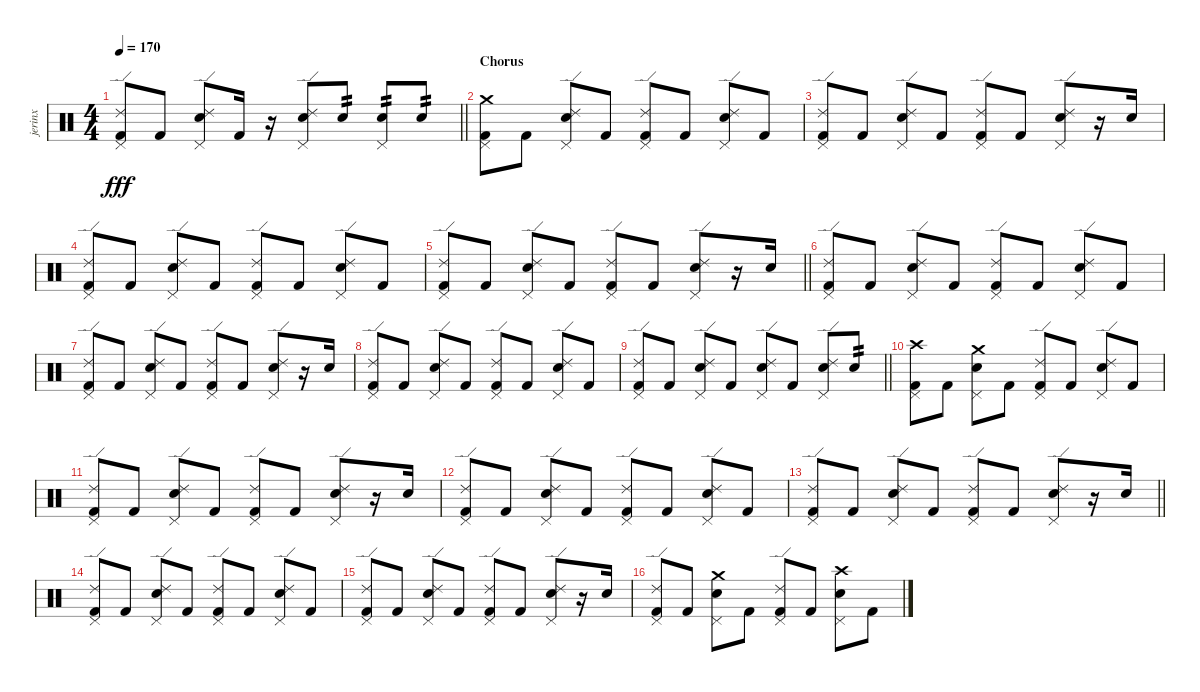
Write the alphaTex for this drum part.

\track ("jerinx" "jerinx") {instrument percussion}
\staff {score}
\articulation defaults
\ts (4 4)
\tempo 170
\clef neutral
\barLineRight lightlight
\ks c
("Pedal Hi-Hat (hit)" "Kick (hit) 2" "Ride (edge) 2").8{dy fff} "Kick (hit) 2".8 ("Pedal Hi-Hat (hit)" "Snare (hit) 2" "Ride (edge) 2").8 "Kick (hit) 2".16 r.16 ("Pedal Hi-Hat (hit)" "Snare (hit) 2" "Ride (edge) 2").8 "Snare (hit) 2".8{tp 2} ("Pedal Hi-Hat (hit)" "Snare (hit) 2").8{tp 2} "Snare (hit) 2".8{tp 2} |
\section ("" "Chorus")
("Pedal Hi-Hat (hit)" "Kick (hit) 2" "Crash medium (hit)").8 "Kick (hit) 2".8 ("Pedal Hi-Hat (hit)" "Snare (hit) 2" "Ride (edge) 2").8 "Kick (hit) 2".8 ("Pedal Hi-Hat (hit)" "Kick (hit) 2" "Ride (edge) 2").8 "Kick (hit) 2".8 ("Pedal Hi-Hat (hit)" "Snare (hit) 2" "Ride (edge) 2").8 "Kick (hit) 2".8 |
("Pedal Hi-Hat (hit)" "Kick (hit) 2" "Ride (edge) 2").8 "Kick (hit) 2".8 ("Pedal Hi-Hat (hit)" "Snare (hit) 2" "Ride (edge) 2").8 "Kick (hit) 2".8 ("Pedal Hi-Hat (hit)" "Kick (hit) 2" "Ride (edge) 2").8 "Kick (hit) 2".8 ("Pedal Hi-Hat (hit)" "Snare (hit) 2" "Ride (edge) 2").8 r.16 "Snare (hit) 2".16 |
("Pedal Hi-Hat (hit)" "Kick (hit) 2" "Ride (edge) 2").8 "Kick (hit) 2".8 ("Pedal Hi-Hat (hit)" "Snare (hit) 2" "Ride (edge) 2").8 "Kick (hit) 2".8 ("Pedal Hi-Hat (hit)" "Kick (hit) 2" "Ride (edge) 2").8 "Kick (hit) 2".8 ("Pedal Hi-Hat (hit)" "Snare (hit) 2" "Ride (edge) 2").8 "Kick (hit) 2".8 |
\barLineRight lightlight
("Pedal Hi-Hat (hit)" "Kick (hit) 2" "Ride (edge) 2").8 "Kick (hit) 2".8 ("Pedal Hi-Hat (hit)" "Snare (hit) 2" "Ride (edge) 2").8 "Kick (hit) 2".8 ("Pedal Hi-Hat (hit)" "Kick (hit) 2" "Ride (edge) 2").8 "Kick (hit) 2".8 ("Pedal Hi-Hat (hit)" "Snare (hit) 2" "Ride (edge) 2").8 r.16 "Snare (hit) 2".16 |
("Pedal Hi-Hat (hit)" "Kick (hit) 2" "Ride (edge) 2").8 "Kick (hit) 2".8 ("Pedal Hi-Hat (hit)" "Snare (hit) 2" "Ride (edge) 2").8 "Kick (hit) 2".8 ("Pedal Hi-Hat (hit)" "Kick (hit) 2" "Ride (edge) 2").8 "Kick (hit) 2".8 ("Pedal Hi-Hat (hit)" "Snare (hit) 2" "Ride (edge) 2").8 "Kick (hit) 2".8 |
("Pedal Hi-Hat (hit)" "Kick (hit) 2" "Ride (edge) 2").8 "Kick (hit) 2".8 ("Pedal Hi-Hat (hit)" "Snare (hit) 2" "Ride (edge) 2").8 "Kick (hit) 2".8 ("Pedal Hi-Hat (hit)" "Kick (hit) 2" "Ride (edge) 2").8 "Kick (hit) 2".8 ("Pedal Hi-Hat (hit)" "Snare (hit) 2" "Ride (edge) 2").8 r.16 "Snare (hit) 2".16 |
("Pedal Hi-Hat (hit)" "Kick (hit) 2" "Ride (edge) 2").8 "Kick (hit) 2".8 ("Pedal Hi-Hat (hit)" "Snare (hit) 2" "Ride (edge) 2").8 "Kick (hit) 2".8 ("Pedal Hi-Hat (hit)" "Kick (hit) 2" "Ride (edge) 2").8 "Kick (hit) 2".8 ("Pedal Hi-Hat (hit)" "Snare (hit) 2" "Ride (edge) 2").8 "Kick (hit) 2".8 |
\barLineRight lightlight
("Pedal Hi-Hat (hit)" "Kick (hit) 2" "Ride (edge) 2").8 "Kick (hit) 2".8 ("Pedal Hi-Hat (hit)" "Snare (hit) 2" "Ride (edge) 2").8 "Kick (hit) 2".8 ("Pedal Hi-Hat (hit)" "Snare (hit) 2" "Ride (edge) 2").8 "Kick (hit) 2".8 ("Pedal Hi-Hat (hit)" "Snare (hit) 2" "Ride (edge) 2").8 "Snare (hit) 2".8{tp 2} |
("Pedal Hi-Hat (hit)" "Kick (hit) 2" "Crash high (hit)").8 "Kick (hit) 2".8 ("Pedal Hi-Hat (hit)" "Snare (hit) 2" "Crash medium (hit)").8 "Kick (hit) 2".8 ("Pedal Hi-Hat (hit)" "Kick (hit) 2" "Ride (edge) 2").8 "Kick (hit) 2".8 ("Pedal Hi-Hat (hit)" "Snare (hit) 2" "Ride (edge) 2").8 "Kick (hit) 2".8 |
("Pedal Hi-Hat (hit)" "Kick (hit) 2" "Ride (edge) 2").8 "Kick (hit) 2".8 ("Pedal Hi-Hat (hit)" "Snare (hit) 2" "Ride (edge) 2").8 "Kick (hit) 2".8 ("Pedal Hi-Hat (hit)" "Kick (hit) 2" "Ride (edge) 2").8 "Kick (hit) 2".8 ("Pedal Hi-Hat (hit)" "Snare (hit) 2" "Ride (edge) 2").8 r.16 "Snare (hit) 2".16 |
("Pedal Hi-Hat (hit)" "Kick (hit) 2" "Ride (edge) 2").8 "Kick (hit) 2".8 ("Pedal Hi-Hat (hit)" "Snare (hit) 2" "Ride (edge) 2").8 "Kick (hit) 2".8 ("Pedal Hi-Hat (hit)" "Kick (hit) 2" "Ride (edge) 2").8 "Kick (hit) 2".8 ("Pedal Hi-Hat (hit)" "Snare (hit) 2" "Ride (edge) 2").8 "Kick (hit) 2".8 |
\barLineRight lightlight
("Pedal Hi-Hat (hit)" "Kick (hit) 2" "Ride (edge) 2").8 "Kick (hit) 2".8 ("Pedal Hi-Hat (hit)" "Snare (hit) 2" "Ride (edge) 2").8 "Kick (hit) 2".8 ("Pedal Hi-Hat (hit)" "Kick (hit) 2" "Ride (edge) 2").8 "Kick (hit) 2".8 ("Pedal Hi-Hat (hit)" "Snare (hit) 2" "Ride (edge) 2").8 r.16 "Snare (hit) 2".16 |
("Pedal Hi-Hat (hit)" "Kick (hit) 2" "Ride (edge) 2").8 "Kick (hit) 2".8 ("Pedal Hi-Hat (hit)" "Snare (hit) 2" "Ride (edge) 2").8 "Kick (hit) 2".8 ("Pedal Hi-Hat (hit)" "Kick (hit) 2" "Ride (edge) 2").8 "Kick (hit) 2".8 ("Pedal Hi-Hat (hit)" "Snare (hit) 2" "Ride (edge) 2").8 "Kick (hit) 2".8 |
("Pedal Hi-Hat (hit)" "Kick (hit) 2" "Ride (edge) 2").8 "Kick (hit) 2".8 ("Pedal Hi-Hat (hit)" "Snare (hit) 2" "Ride (edge) 2").8 "Kick (hit) 2".8 ("Pedal Hi-Hat (hit)" "Kick (hit) 2" "Ride (edge) 2").8 "Kick (hit) 2".8 ("Pedal Hi-Hat (hit)" "Snare (hit) 2" "Ride (edge) 2").8 r.16 "Snare (hit) 2".16 |
("Pedal Hi-Hat (hit)" "Kick (hit) 2" "Ride (edge) 2").8 "Kick (hit) 2".8 ("Pedal Hi-Hat (hit)" "Snare (hit) 2" "Crash medium (hit)").8 "Kick (hit) 2".8 ("Pedal Hi-Hat (hit)" "Kick (hit) 2" "Ride (edge) 2").8 "Kick (hit) 2".8 ("Pedal Hi-Hat (hit)" "Snare (hit) 2" "Crash high (hit)").8 "Kick (hit) 2".8
